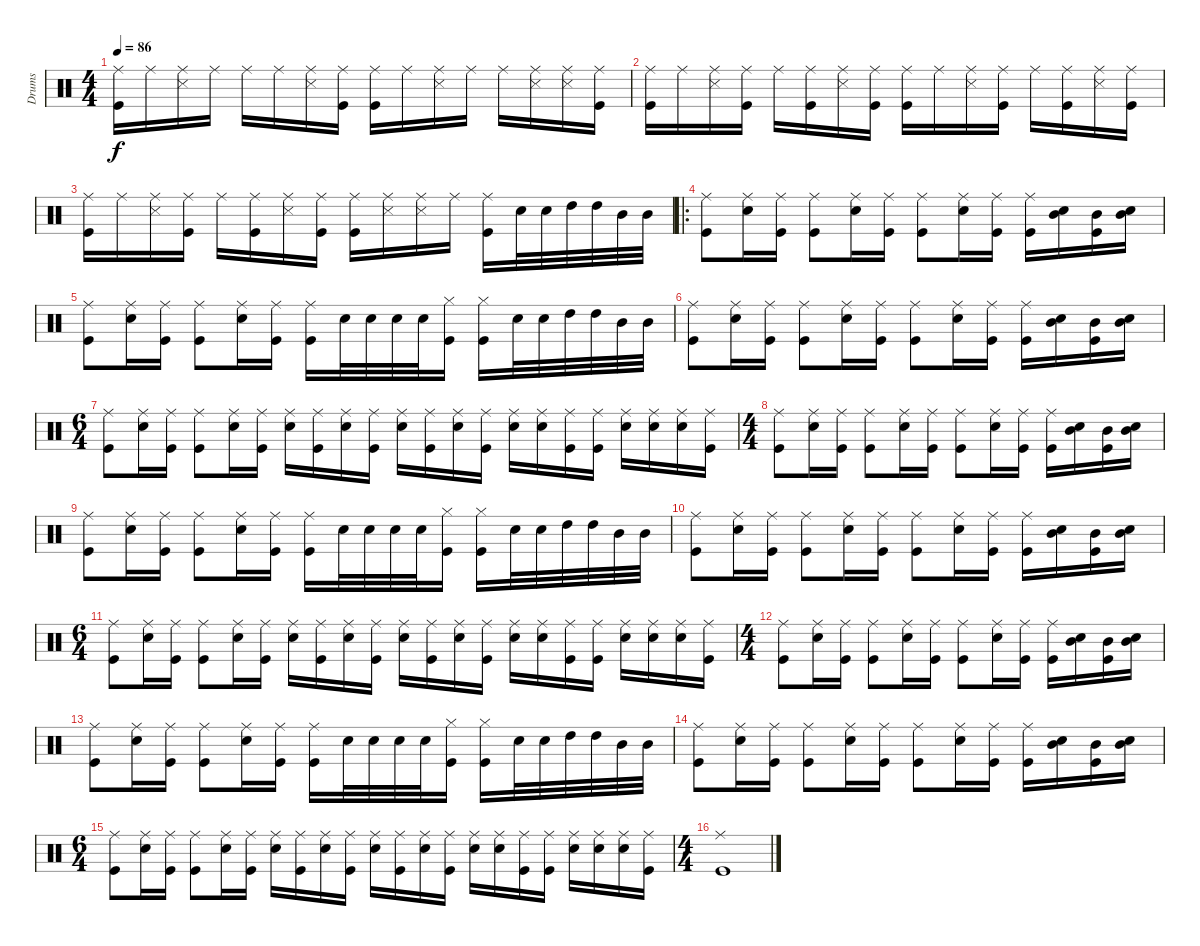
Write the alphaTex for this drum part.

\track ("Drums" "Drums") {instrument percussion}
\staff {score}
\articulation defaults
\ts (4 4)
\tempo 86
\clef neutral
\ks c
("Ride (middle)" "Kick (hit)").16{dy f} "Ride (middle)".16 ("Ride (middle)" "Snare (side stick) 3").16 "Ride (middle)".16 "Ride (middle)".16 "Ride (middle)".16 ("Ride (middle)" "Snare (side stick) 3").16 ("Ride (middle)" "Kick (hit)").16 ("Ride (middle)" "Kick (hit)").16 "Ride (middle)".16 ("Ride (middle)" "Snare (side stick) 3").16 "Ride (middle)".16 "Ride (middle)".16 ("Ride (middle)" "Snare (side stick) 3").16 ("Ride (middle)" "Snare (side stick) 3").16 ("Ride (middle)" "Kick (hit)").16 |
("Ride (middle)" "Kick (hit)").16 "Ride (middle)".16 ("Ride (middle)" "Snare (side stick) 3").16 ("Ride (middle)" "Kick (hit)").16 "Ride (middle)".16 ("Ride (middle)" "Kick (hit)").16 ("Ride (middle)" "Snare (side stick) 3").16 ("Ride (middle)" "Kick (hit)").16 ("Ride (middle)" "Kick (hit)").16 "Ride (middle)".16 ("Ride (middle)" "Snare (side stick) 3").16 ("Ride (middle)" "Kick (hit)").16 "Ride (middle)".16 ("Ride (middle)" "Kick (hit)").16 ("Ride (middle)" "Snare (side stick) 3").16 ("Ride (middle)" "Kick (hit)").16 |
("Ride (middle)" "Kick (hit)").16 "Ride (middle)".16 ("Ride (middle)" "Snare (side stick) 3").16 ("Ride (middle)" "Kick (hit)").16 "Ride (middle)".16 ("Ride (middle)" "Kick (hit)").16 ("Ride (middle)" "Snare (side stick) 3").16 ("Ride (middle)" "Kick (hit)").16 ("Ride (middle)" "Kick (hit)").16 ("Ride (middle)" "Snare (side stick) 3").16 ("Ride (middle)" "Snare (side stick) 3").16 "Ride (middle)".16 ("Ride (middle)" "Kick (hit)").16 "Snare (hit) 2".32 "Snare (hit) 2".32 "High Tom (hit)".32 "High Tom (hit)".32 "Mid Tom (hit)".32 "Mid Tom (hit)".32 |
\ro
("Ride (middle)" "Kick (hit)").8 ("Ride (middle)" "Snare (hit) 2").16 ("Ride (middle)" "Kick (hit)").16 ("Ride (middle)" "Kick (hit)").8 ("Ride (middle)" "Snare (hit) 2").16 ("Ride (middle)" "Kick (hit)").16 ("Ride (middle)" "Kick (hit)").8 ("Ride (middle)" "Snare (hit) 2").16 ("Ride (middle)" "Kick (hit)").16 ("Ride (middle)" "Kick (hit)").16 ("Snare (hit) 2" "Mid Tom (hit)").16 ("Mid Tom (hit)" "Kick (hit)").16 ("Snare (hit) 2" "Mid Tom (hit)").16 |
("Ride (middle)" "Kick (hit)").8 ("Ride (middle)" "Snare (hit) 2").16 ("Ride (middle)" "Kick (hit)").16 ("Ride (middle)" "Kick (hit)").8 ("Ride (middle)" "Snare (hit) 2").16 ("Ride (middle)" "Kick (hit)").16 ("Ride (middle)" "Kick (hit)").16 "Snare (hit) 2".32 "Snare (hit) 2".32 "Snare (hit) 2".32 "Snare (hit) 2".32 ("Hi-Hat (closed)" "Kick (hit)").16 ("Hi-Hat (closed)" "Kick (hit)").16 "Snare (hit) 2".32 "Snare (hit) 2".32 "High Tom (hit)".32 "High Tom (hit)".32 "Mid Tom (hit)".32 "Mid Tom (hit)".32 |
("Ride (middle)" "Kick (hit)").8 ("Ride (middle)" "Snare (hit) 2").16 ("Ride (middle)" "Kick (hit)").16 ("Ride (middle)" "Kick (hit)").8 ("Ride (middle)" "Snare (hit) 2").16 ("Ride (middle)" "Kick (hit)").16 ("Ride (middle)" "Kick (hit)").8 ("Ride (middle)" "Snare (hit) 2").16 ("Ride (middle)" "Kick (hit)").16 ("Ride (middle)" "Kick (hit)").16 ("Snare (hit) 2" "Mid Tom (hit)").16 ("Mid Tom (hit)" "Kick (hit)").16 ("Snare (hit) 2" "Mid Tom (hit)").16 |
\ts (6 4)
("Ride (middle)" "Kick (hit)").8 ("Ride (middle)" "Snare (hit) 2").16 ("Ride (middle)" "Kick (hit)").16 ("Ride (middle)" "Kick (hit)").8 ("Ride (middle)" "Snare (hit) 2").16 ("Ride (middle)" "Kick (hit)").16 ("Ride (middle)" "Snare (hit) 2").16 ("Ride (middle)" "Kick (hit)").16 ("Ride (middle)" "Snare (hit) 2").16 ("Ride (middle)" "Kick (hit)").16 ("Ride (middle)" "Snare (hit) 2").16 ("Ride (middle)" "Kick (hit)").16 ("Ride (middle)" "Snare (hit) 2").16 ("Ride (middle)" "Kick (hit)").16 ("Ride (middle)" "Snare (hit) 2").16 ("Ride (middle)" "Snare (hit) 2").16 ("Ride (middle)" "Kick (hit)").16 ("Ride (middle)" "Kick (hit)").16 ("Ride (middle)" "Snare (hit) 2").16 ("Ride (middle)" "Snare (hit) 2").16 ("Ride (middle)" "Snare (hit) 2").16 ("Ride (middle)" "Kick (hit)").16 |
\ts (4 4)
("Ride (middle)" "Kick (hit)").8 ("Ride (middle)" "Snare (hit) 2").16 ("Ride (middle)" "Kick (hit)").16 ("Ride (middle)" "Kick (hit)").8 ("Ride (middle)" "Snare (hit) 2").16 ("Ride (middle)" "Kick (hit)").16 ("Ride (middle)" "Kick (hit)").8 ("Ride (middle)" "Snare (hit) 2").16 ("Ride (middle)" "Kick (hit)").16 ("Ride (middle)" "Kick (hit)").16 ("Snare (hit) 2" "Mid Tom (hit)").16 ("Mid Tom (hit)" "Kick (hit)").16 ("Snare (hit) 2" "Mid Tom (hit)").16 |
("Ride (middle)" "Kick (hit)").8 ("Ride (middle)" "Snare (hit) 2").16 ("Ride (middle)" "Kick (hit)").16 ("Ride (middle)" "Kick (hit)").8 ("Ride (middle)" "Snare (hit) 2").16 ("Ride (middle)" "Kick (hit)").16 ("Ride (middle)" "Kick (hit)").16 "Snare (hit) 2".32 "Snare (hit) 2".32 "Snare (hit) 2".32 "Snare (hit) 2".32 ("Hi-Hat (closed)" "Kick (hit)").16 ("Hi-Hat (closed)" "Kick (hit)").16 "Snare (hit) 2".32 "Snare (hit) 2".32 "High Tom (hit)".32 "High Tom (hit)".32 "Mid Tom (hit)".32 "Mid Tom (hit)".32 |
("Ride (middle)" "Kick (hit)").8 ("Ride (middle)" "Snare (hit) 2").16 ("Ride (middle)" "Kick (hit)").16 ("Ride (middle)" "Kick (hit)").8 ("Ride (middle)" "Snare (hit) 2").16 ("Ride (middle)" "Kick (hit)").16 ("Ride (middle)" "Kick (hit)").8 ("Ride (middle)" "Snare (hit) 2").16 ("Ride (middle)" "Kick (hit)").16 ("Ride (middle)" "Kick (hit)").16 ("Snare (hit) 2" "Mid Tom (hit)").16 ("Mid Tom (hit)" "Kick (hit)").16 ("Snare (hit) 2" "Mid Tom (hit)").16 |
\ts (6 4)
("Ride (middle)" "Kick (hit)").8 ("Ride (middle)" "Snare (hit) 2").16 ("Ride (middle)" "Kick (hit)").16 ("Ride (middle)" "Kick (hit)").8 ("Ride (middle)" "Snare (hit) 2").16 ("Ride (middle)" "Kick (hit)").16 ("Ride (middle)" "Snare (hit) 2").16 ("Ride (middle)" "Kick (hit)").16 ("Ride (middle)" "Snare (hit) 2").16 ("Ride (middle)" "Kick (hit)").16 ("Ride (middle)" "Snare (hit) 2").16 ("Ride (middle)" "Kick (hit)").16 ("Ride (middle)" "Snare (hit) 2").16 ("Ride (middle)" "Kick (hit)").16 ("Ride (middle)" "Snare (hit) 2").16 ("Ride (middle)" "Snare (hit) 2").16 ("Ride (middle)" "Kick (hit)").16 ("Ride (middle)" "Kick (hit)").16 ("Ride (middle)" "Snare (hit) 2").16 ("Ride (middle)" "Snare (hit) 2").16 ("Ride (middle)" "Snare (hit) 2").16 ("Ride (middle)" "Kick (hit)").16 |
\ts (4 4)
("Ride (middle)" "Kick (hit)").8 ("Ride (middle)" "Snare (hit) 2").16 ("Ride (middle)" "Kick (hit)").16 ("Ride (middle)" "Kick (hit)").8 ("Ride (middle)" "Snare (hit) 2").16 ("Ride (middle)" "Kick (hit)").16 ("Ride (middle)" "Kick (hit)").8 ("Ride (middle)" "Snare (hit) 2").16 ("Ride (middle)" "Kick (hit)").16 ("Ride (middle)" "Kick (hit)").16 ("Snare (hit) 2" "Mid Tom (hit)").16 ("Mid Tom (hit)" "Kick (hit)").16 ("Snare (hit) 2" "Mid Tom (hit)").16 |
("Ride (middle)" "Kick (hit)").8 ("Ride (middle)" "Snare (hit) 2").16 ("Ride (middle)" "Kick (hit)").16 ("Ride (middle)" "Kick (hit)").8 ("Ride (middle)" "Snare (hit) 2").16 ("Ride (middle)" "Kick (hit)").16 ("Ride (middle)" "Kick (hit)").16 "Snare (hit) 2".32 "Snare (hit) 2".32 "Snare (hit) 2".32 "Snare (hit) 2".32 ("Hi-Hat (closed)" "Kick (hit)").16 ("Hi-Hat (closed)" "Kick (hit)").16 "Snare (hit) 2".32 "Snare (hit) 2".32 "High Tom (hit)".32 "High Tom (hit)".32 "Mid Tom (hit)".32 "Mid Tom (hit)".32 |
("Ride (middle)" "Kick (hit)").8 ("Ride (middle)" "Snare (hit) 2").16 ("Ride (middle)" "Kick (hit)").16 ("Ride (middle)" "Kick (hit)").8 ("Ride (middle)" "Snare (hit) 2").16 ("Ride (middle)" "Kick (hit)").16 ("Ride (middle)" "Kick (hit)").8 ("Ride (middle)" "Snare (hit) 2").16 ("Ride (middle)" "Kick (hit)").16 ("Ride (middle)" "Kick (hit)").16 ("Snare (hit) 2" "Mid Tom (hit)").16 ("Mid Tom (hit)" "Kick (hit)").16 ("Snare (hit) 2" "Mid Tom (hit)").16 |
\ts (6 4)
("Ride (middle)" "Kick (hit)").8 ("Ride (middle)" "Snare (hit) 2").16 ("Ride (middle)" "Kick (hit)").16 ("Ride (middle)" "Kick (hit)").8 ("Ride (middle)" "Snare (hit) 2").16 ("Ride (middle)" "Kick (hit)").16 ("Ride (middle)" "Snare (hit) 2").16 ("Ride (middle)" "Kick (hit)").16 ("Ride (middle)" "Snare (hit) 2").16 ("Ride (middle)" "Kick (hit)").16 ("Ride (middle)" "Snare (hit) 2").16 ("Ride (middle)" "Kick (hit)").16 ("Ride (middle)" "Snare (hit) 2").16 ("Ride (middle)" "Kick (hit)").16 ("Ride (middle)" "Snare (hit) 2").16 ("Ride (middle)" "Snare (hit) 2").16 ("Ride (middle)" "Kick (hit)").16 ("Ride (middle)" "Kick (hit)").16 ("Ride (middle)" "Snare (hit) 2").16 ("Ride (middle)" "Snare (hit) 2").16 ("Ride (middle)" "Snare (hit) 2").16 ("Ride (middle)" "Kick (hit)").16 |
\ts (4 4)
("Ride (middle)" "Kick (hit)").1
